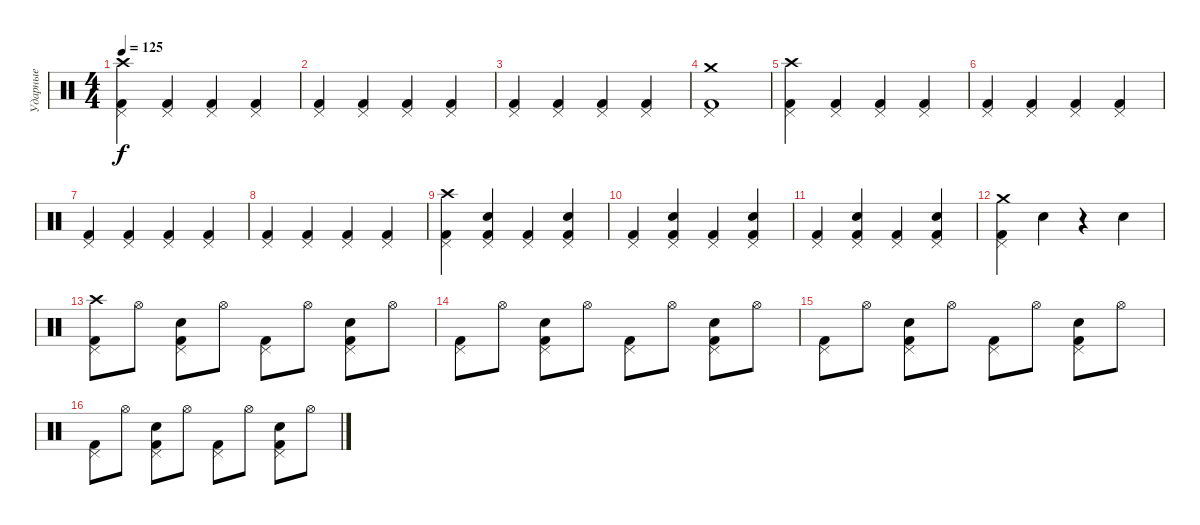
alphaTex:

\track ("Ударные" "Ударные") {instrument percussion}
\staff {score}
\articulation defaults
\ts (4 4)
\tempo 125
\clef neutral
\ks c
("Kick (hit) 2" "Pedal Hi-Hat (hit)" "Crash high (hit)").4{dy f} ("Kick (hit) 2" "Pedal Hi-Hat (hit)").4 ("Kick (hit) 2" "Pedal Hi-Hat (hit)").4 ("Kick (hit) 2" "Pedal Hi-Hat (hit)").4 |
("Kick (hit) 2" "Pedal Hi-Hat (hit)").4 ("Kick (hit) 2" "Pedal Hi-Hat (hit)").4 ("Kick (hit) 2" "Pedal Hi-Hat (hit)").4 ("Kick (hit) 2" "Pedal Hi-Hat (hit)").4 |
("Kick (hit) 2" "Pedal Hi-Hat (hit)").4 ("Kick (hit) 2" "Pedal Hi-Hat (hit)").4 ("Kick (hit) 2" "Pedal Hi-Hat (hit)").4 ("Kick (hit) 2" "Pedal Hi-Hat (hit)").4 |
("Kick (hit) 2" "Pedal Hi-Hat (hit)" "Crash medium (hit)").1 |
("Kick (hit) 2" "Pedal Hi-Hat (hit)" "Crash high (hit)").4 ("Kick (hit) 2" "Pedal Hi-Hat (hit)").4 ("Kick (hit) 2" "Pedal Hi-Hat (hit)").4 ("Kick (hit) 2" "Pedal Hi-Hat (hit)").4 |
("Kick (hit) 2" "Pedal Hi-Hat (hit)").4 ("Kick (hit) 2" "Pedal Hi-Hat (hit)").4 ("Kick (hit) 2" "Pedal Hi-Hat (hit)").4 ("Kick (hit) 2" "Pedal Hi-Hat (hit)").4 |
("Kick (hit) 2" "Pedal Hi-Hat (hit)").4 ("Kick (hit) 2" "Pedal Hi-Hat (hit)").4 ("Kick (hit) 2" "Pedal Hi-Hat (hit)").4 ("Kick (hit) 2" "Pedal Hi-Hat (hit)").4 |
("Kick (hit) 2" "Pedal Hi-Hat (hit)").4 ("Kick (hit) 2" "Pedal Hi-Hat (hit)").4 ("Kick (hit) 2" "Pedal Hi-Hat (hit)").4 ("Kick (hit) 2" "Pedal Hi-Hat (hit)").4 |
("Kick (hit) 2" "Pedal Hi-Hat (hit)" "Crash high (hit)").4 ("Kick (hit) 2" "Pedal Hi-Hat (hit)" "Hand Clap (hit)").4 ("Kick (hit) 2" "Pedal Hi-Hat (hit)").4 ("Kick (hit) 2" "Pedal Hi-Hat (hit)" "Hand Clap (hit)").4 |
("Kick (hit) 2" "Pedal Hi-Hat (hit)").4 ("Kick (hit) 2" "Pedal Hi-Hat (hit)" "Hand Clap (hit)").4 ("Kick (hit) 2" "Pedal Hi-Hat (hit)").4 ("Kick (hit) 2" "Pedal Hi-Hat (hit)" "Hand Clap (hit)").4 |
("Kick (hit) 2" "Pedal Hi-Hat (hit)").4 ("Kick (hit) 2" "Pedal Hi-Hat (hit)" "Hand Clap (hit)").4 ("Kick (hit) 2" "Pedal Hi-Hat (hit)").4 ("Kick (hit) 2" "Pedal Hi-Hat (hit)" "Hand Clap (hit)").4 |
("Kick (hit) 2" "Pedal Hi-Hat (hit)" "Crash medium (hit)").4 "Hand Clap (hit)".4 r.4 "Hand Clap (hit)".4 |
("Kick (hit) 2" "Pedal Hi-Hat (hit)" "Crash high (hit)").8 "Hi-Hat (open)".8 ("Kick (hit) 2" "Pedal Hi-Hat (hit)" "Hand Clap (hit)").8 "Hi-Hat (open)".8 ("Kick (hit) 2" "Pedal Hi-Hat (hit)").8 "Hi-Hat (open)".8 ("Kick (hit) 2" "Pedal Hi-Hat (hit)" "Hand Clap (hit)").8 "Hi-Hat (open)".8 |
("Kick (hit) 2" "Pedal Hi-Hat (hit)").8 "Hi-Hat (open)".8 ("Kick (hit) 2" "Pedal Hi-Hat (hit)" "Hand Clap (hit)").8 "Hi-Hat (open)".8 ("Kick (hit) 2" "Pedal Hi-Hat (hit)").8 "Hi-Hat (open)".8 ("Kick (hit) 2" "Pedal Hi-Hat (hit)" "Hand Clap (hit)").8 "Hi-Hat (open)".8 |
("Kick (hit) 2" "Pedal Hi-Hat (hit)").8 "Hi-Hat (open)".8 ("Kick (hit) 2" "Pedal Hi-Hat (hit)" "Hand Clap (hit)").8 "Hi-Hat (open)".8 ("Kick (hit) 2" "Pedal Hi-Hat (hit)").8 "Hi-Hat (open)".8 ("Kick (hit) 2" "Pedal Hi-Hat (hit)" "Hand Clap (hit)").8 "Hi-Hat (open)".8 |
("Kick (hit) 2" "Pedal Hi-Hat (hit)").8 "Hi-Hat (open)".8 ("Kick (hit) 2" "Pedal Hi-Hat (hit)" "Hand Clap (hit)").8 "Hi-Hat (open)".8 ("Kick (hit) 2" "Pedal Hi-Hat (hit)").8 "Hi-Hat (open)".8 ("Kick (hit) 2" "Pedal Hi-Hat (hit)" "Hand Clap (hit)").8 "Hi-Hat (open)".8
